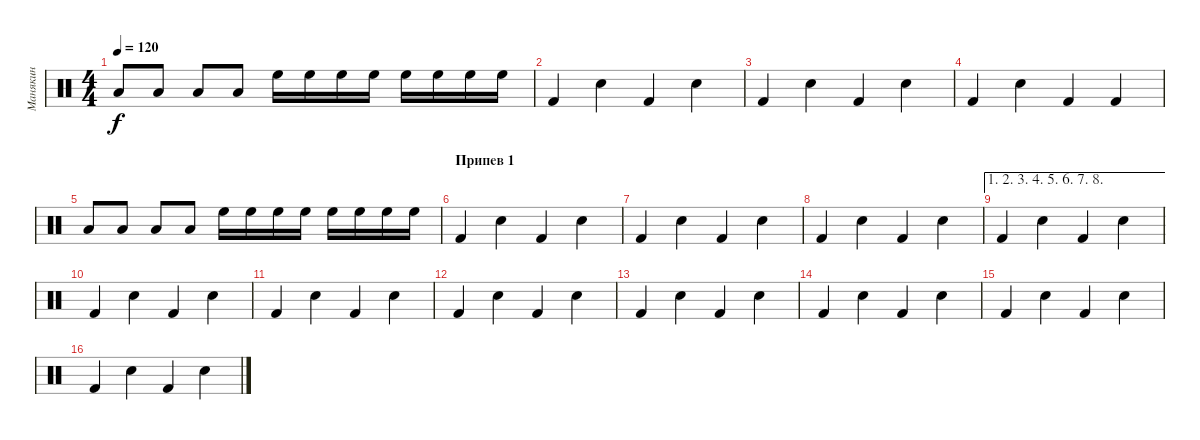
\track ("Манякин" "Манякин") {instrument percussion}
\staff {score}
\articulation defaults
\ts (4 4)
\tempo 120
\clef neutral
\ks c "Low Tom (hit)".8{dy f} "Low Tom (hit)".8 "Low Tom (hit)".8 "Low Tom (hit)".8 "High Floor Tom (hit)".16 "High Floor Tom (hit)".16 "High Floor Tom (hit)".16 "High Floor Tom (hit)".16 "High Floor Tom (hit)".16 "High Floor Tom (hit)".16 "High Floor Tom (hit)".16 "High Floor Tom (hit)".16
|
"Kick (hit) 2".4 "Snare (hit) 2".4 "Kick (hit) 2".4 "Snare (hit) 2".4 |
"Kick (hit) 2".4 "Snare (hit) 2".4 "Kick (hit) 2".4 "Snare (hit) 2".4 |
"Kick (hit) 2".4 "Snare (hit) 2".4 "Kick (hit) 2".4 "Kick (hit) 2".4 |
"Low Tom (hit)".8 "Low Tom (hit)".8 "Low Tom (hit)".8 "Low Tom (hit)".8 "High Floor Tom (hit)".16 "High Floor Tom (hit)".16 "High Floor Tom (hit)".16 "High Floor Tom (hit)".16 "High Floor Tom (hit)".16 "High Floor Tom (hit)".16 "High Floor Tom (hit)".16 "High Floor Tom (hit)".16 |
\section ("" "Припев 1")
"Kick (hit) 2".4 "Snare (hit) 2".4 "Kick (hit) 2".4 "Snare (hit) 2".4 |
"Kick (hit) 2".4 "Snare (hit) 2".4 "Kick (hit) 2".4 "Snare (hit) 2".4 |
"Kick (hit) 2".4 "Snare (hit) 2".4 "Kick (hit) 2".4 "Snare (hit) 2".4 |
\ae (1 2 3 4 5 6 7 8)
"Kick (hit) 2".4 "Snare (hit) 2".4 "Kick (hit) 2".4 "Snare (hit) 2".4 |
"Kick (hit) 2".4 "Snare (hit) 2".4 "Kick (hit) 2".4 "Snare (hit) 2".4 |
"Kick (hit) 2".4 "Snare (hit) 2".4 "Kick (hit) 2".4 "Snare (hit) 2".4 |
"Kick (hit) 2".4 "Snare (hit) 2".4 "Kick (hit) 2".4 "Snare (hit) 2".4 |
"Kick (hit) 2".4 "Snare (hit) 2".4 "Kick (hit) 2".4 "Snare (hit) 2".4 |
"Kick (hit) 2".4 "Snare (hit) 2".4 "Kick (hit) 2".4 "Snare (hit) 2".4 |
"Kick (hit) 2".4 "Snare (hit) 2".4 "Kick (hit) 2".4 "Snare (hit) 2".4 |
"Kick (hit) 2".4 "Snare (hit) 2".4 "Kick (hit) 2".4 "Snare (hit) 2".4
